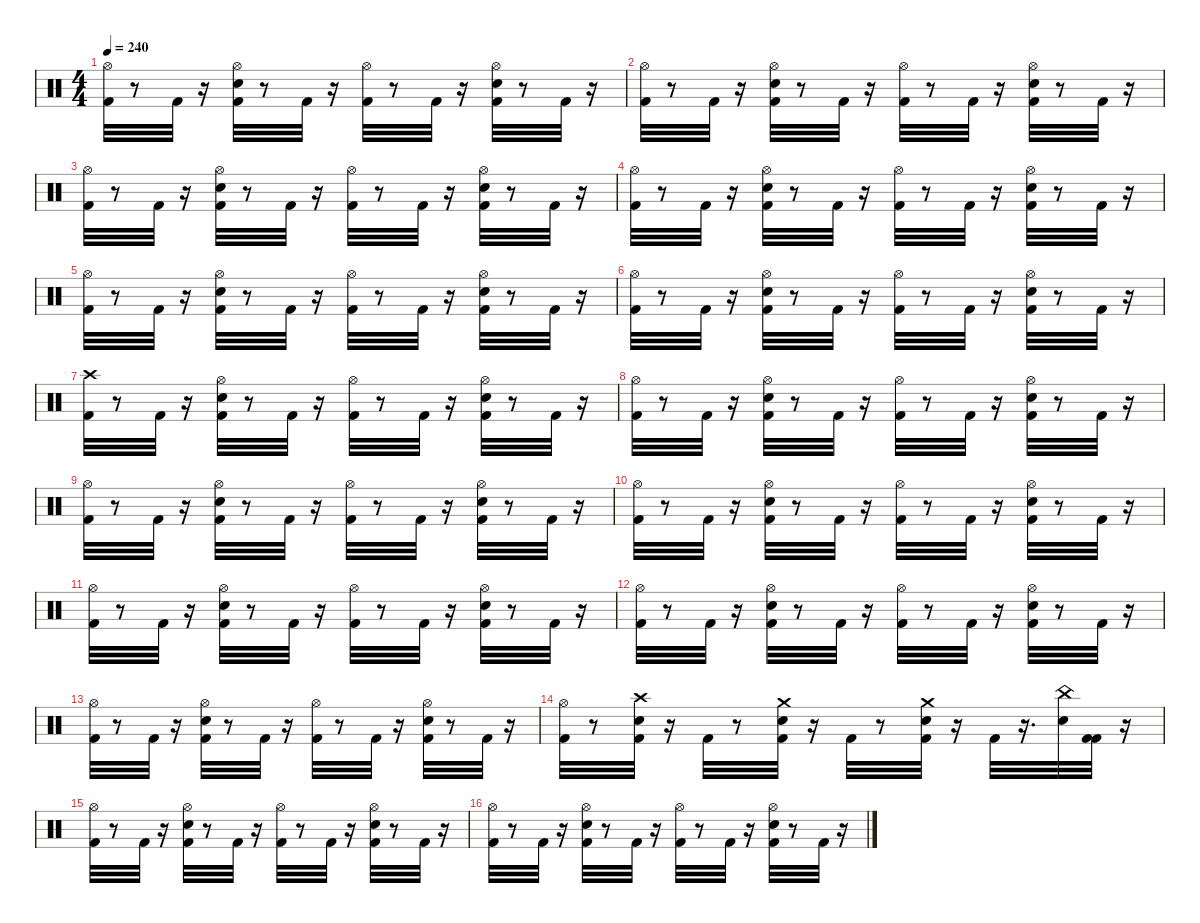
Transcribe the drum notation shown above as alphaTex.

\defaultSystemsLayout 4
\hideDynamics
\bracketExtendMode nobrackets
\singleTrackTrackNamePolicy hidden
\multiTrackTrackNamePolicy hidden
\otherSystemsTrackNameOrientation horizontal
\track ("Drums" "drm.") {instrument percussion}
\staff {score}
\articulation defaults
\ts (4 4)
\tempo 240
\clef neutral
\ks c
("Hi-Hat (open)" "Kick (hit) 2").32{dy f} r.8 "Kick (hit) 2".32 r.16 ("Kick (hit) 2" "Hi-Hat (open)" "Snare (hit) 2").32 r.8 "Kick (hit) 2".32 r.16 ("Hi-Hat (open)" "Kick (hit) 2").32 r.8 "Kick (hit) 2".32 r.16 ("Snare (hit) 2" "Hi-Hat (open)" "Kick (hit) 2").32 r.8 "Kick (hit) 2".32 r.16 |
("Hi-Hat (open)" "Kick (hit) 2").32 r.8 "Kick (hit) 2".32 r.16 ("Kick (hit) 2" "Snare (hit) 2" "Hi-Hat (open)").32 r.8 "Kick (hit) 2".32 r.16 ("Hi-Hat (open)" "Kick (hit) 2").32 r.8 "Kick (hit) 2".32 r.16 ("Hi-Hat (open)" "Snare (hit) 2" "Kick (hit) 2").32 r.8 "Kick (hit) 2".32 r.16 |
("Hi-Hat (open)" "Kick (hit) 2").32 r.8 "Kick (hit) 2".32 r.16 ("Kick (hit) 2" "Hi-Hat (open)" "Snare (hit) 2").32 r.8 "Kick (hit) 2".32 r.16 ("Hi-Hat (open)" "Kick (hit) 2").32 r.8 "Kick (hit) 2".32 r.16 ("Kick (hit) 2" "Hi-Hat (open)" "Snare (hit) 2").32 r.8 "Kick (hit) 2".32 r.16 |
("Kick (hit) 2" "Hi-Hat (open)").32 r.8 "Kick (hit) 2".32 r.16 ("Snare (hit) 2" "Hi-Hat (open)" "Kick (hit) 2").32 r.8 "Kick (hit) 2".32 r.16 ("Hi-Hat (open)" "Kick (hit) 2").32 r.8 "Kick (hit) 2".32 r.16 ("Kick (hit) 2" "Snare (hit) 2" "Hi-Hat (open)").32 r.8 "Kick (hit) 2".32 r.16 |
("Kick (hit) 2" "Hi-Hat (open)").32 r.8 "Kick (hit) 2".32 r.16 ("Kick (hit) 2" "Hi-Hat (open)" "Snare (hit) 2").32 r.8 "Kick (hit) 2".32 r.16 ("Kick (hit) 2" "Hi-Hat (open)").32 r.8 "Kick (hit) 2".32 r.16 ("Snare (hit) 2" "Hi-Hat (open)" "Kick (hit) 2").32 r.8 "Kick (hit) 2".32 r.16 |
("Kick (hit) 2" "Hi-Hat (open)").32 r.8 "Kick (hit) 2".32 r.16 ("Snare (hit) 2" "Hi-Hat (open)" "Kick (hit) 2").32 r.8 "Kick (hit) 2".32 r.16 ("Hi-Hat (open)" "Kick (hit) 2").32 r.8 "Kick (hit) 2".32 r.16 ("Snare (hit) 2" "Hi-Hat (open)" "Kick (hit) 2").32 r.8 "Kick (hit) 2".32 r.16 |
("Kick (hit) 2" "Crash high (hit)").32 r.8 "Kick (hit) 2".32 r.16 ("Hi-Hat (open)" "Snare (hit) 2" "Kick (hit) 2").32 r.8 "Kick (hit) 2".32 r.16 ("Kick (hit) 2" "Hi-Hat (open)").32 r.8 "Kick (hit) 2".32 r.16 ("Snare (hit) 2" "Kick (hit) 2" "Hi-Hat (open)").32 r.8 "Kick (hit) 2".32 r.16 |
("Kick (hit) 2" "Hi-Hat (open)").32 r.8 "Kick (hit) 2".32 r.16 ("Snare (hit) 2" "Hi-Hat (open)" "Kick (hit) 2").32 r.8 "Kick (hit) 2".32 r.16 ("Kick (hit) 2" "Hi-Hat (open)").32 r.8 "Kick (hit) 2".32 r.16 ("Kick (hit) 2" "Hi-Hat (open)" "Snare (hit) 2").32 r.8 "Kick (hit) 2".32 r.16 |
("Hi-Hat (open)" "Kick (hit) 2").32 r.8 "Kick (hit) 2".32 r.16 ("Hi-Hat (open)" "Snare (hit) 2" "Kick (hit) 2").32 r.8 "Kick (hit) 2".32 r.16 ("Hi-Hat (open)" "Kick (hit) 2").32 r.8 "Kick (hit) 2".32 r.16 ("Hi-Hat (open)" "Snare (hit) 2" "Kick (hit) 2").32 r.8 "Kick (hit) 2".32 r.16 |
("Hi-Hat (open)" "Kick (hit) 2").32 r.8 "Kick (hit) 2".32 r.16 ("Hi-Hat (open)" "Snare (hit) 2" "Kick (hit) 2").32 r.8 "Kick (hit) 2".32 r.16 ("Hi-Hat (open)" "Kick (hit) 2").32 r.8 "Kick (hit) 2".32 r.16 ("Hi-Hat (open)" "Snare (hit) 2" "Kick (hit) 2").32 r.8 "Kick (hit) 2".32 r.16 |
("Hi-Hat (open)" "Kick (hit) 2").32 r.8 "Kick (hit) 2".32 r.16 ("Hi-Hat (open)" "Snare (hit) 2" "Kick (hit) 2").32 r.8 "Kick (hit) 2".32 r.16 ("Hi-Hat (open)" "Kick (hit) 2").32 r.8 "Kick (hit) 2".32 r.16 ("Snare (hit) 2" "Kick (hit) 2" "Hi-Hat (open)").32 r.8 "Kick (hit) 2".32 r.16 |
("Hi-Hat (open)" "Kick (hit) 2").32 r.8 "Kick (hit) 2".32 r.16 ("Kick (hit) 2" "Hi-Hat (open)" "Snare (hit) 2").32 r.8 "Kick (hit) 2".32 r.16 ("Hi-Hat (open)" "Kick (hit) 2").32 r.8 "Kick (hit) 2".32 r.16 ("Snare (hit) 2" "Hi-Hat (open)" "Kick (hit) 2").32 r.8 "Kick (hit) 2".32 r.16 |
("Hi-Hat (open)" "Kick (hit) 2").32 r.8 "Kick (hit) 2".32 r.16 ("Hi-Hat (open)" "Kick (hit) 2" "Snare (hit) 2").32 r.8 "Kick (hit) 2".32 r.16 ("Kick (hit) 2" "Hi-Hat (open)").32 r.8 "Kick (hit) 2".32 r.16 ("Hi-Hat (open)" "Kick (hit) 2" "Snare (hit) 2").32 r.8 "Kick (hit) 2".32 r.16 |
("Kick (hit) 2" "Hi-Hat (open)").32 r.8 ("Kick (hit) 2" "Crash high (hit)" "Snare (hit) 2").32 r.16 "Kick (hit) 2".32 r.8 ("Kick (hit) 2" "Crash medium (hit)" "Snare (hit) 2").32 r.16 "Kick (hit) 2".32 r.8 ("Snare (hit) 2" "Kick (hit) 2" "Crash medium (hit)").32 r.16 "Kick (hit) 2".32 r.16{d} ("Snare (hit) 2" "China (hit)").32 ("Kick (hit) 2" "Kick (hit) 2").32 r.16 |
("Hi-Hat (open)" "Kick (hit) 2").32 r.8 "Kick (hit) 2".32 r.16 ("Snare (hit) 2" "Kick (hit) 2" "Hi-Hat (open)").32 r.8 "Kick (hit) 2".32 r.16 ("Hi-Hat (open)" "Kick (hit) 2").32 r.8 "Kick (hit) 2".32 r.16 ("Snare (hit) 2" "Kick (hit) 2" "Hi-Hat (open)").32 r.8 "Kick (hit) 2".32 r.16 |
("Hi-Hat (open)" "Kick (hit) 2").32 r.8 "Kick (hit) 2".32 r.16 ("Hi-Hat (open)" "Kick (hit) 2" "Snare (hit) 2").32 r.8 "Kick (hit) 2".32 r.16 ("Kick (hit) 2" "Hi-Hat (open)").32 r.8 "Kick (hit) 2".32 r.16 ("Snare (hit) 2" "Hi-Hat (open)" "Kick (hit) 2").32 r.8 "Kick (hit) 2".32 r.16
